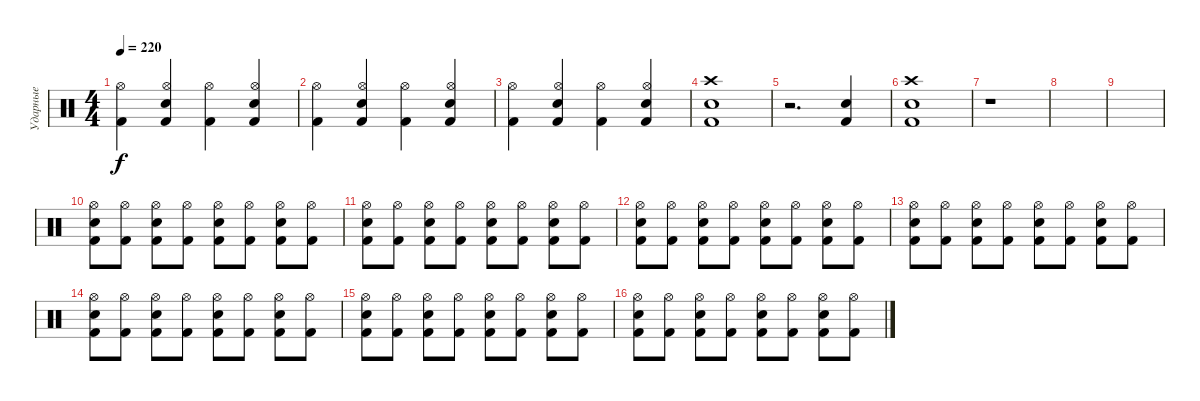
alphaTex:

\track ("Ударные" "Ударные") {instrument percussion}
\staff
\articulation defaults
\ts (4 4)
\tempo 220
\clef neutral
\ks c
("Kick (hit) 2" "Hi-Hat (open)").4{dy f} ("Kick (hit) 2" "Snare (hit) 2" "Hi-Hat (open)").4 ("Kick (hit) 2" "Hi-Hat (open)").4 ("Kick (hit) 2" "Snare (hit) 2" "Hi-Hat (open)").4 |
("Kick (hit) 2" "Hi-Hat (open)").4 ("Kick (hit) 2" "Snare (hit) 2" "Hi-Hat (open)").4 ("Kick (hit) 2" "Hi-Hat (open)").4 ("Kick (hit) 2" "Snare (hit) 2" "Hi-Hat (open)").4 |
("Kick (hit) 2" "Hi-Hat (open)").4 ("Kick (hit) 2" "Snare (hit) 2" "Hi-Hat (open)").4 ("Kick (hit) 2" "Hi-Hat (open)").4 ("Kick (hit) 2" "Snare (hit) 2" "Hi-Hat (open)").4 |
("Kick (hit) 2" "Snare (hit) 2" "Crash high (hit)").1 |
r.2{d} ("Kick (hit) 2" "Snare (hit) 2").4 |
("Kick (hit) 2" "Snare (hit) 2" "Crash high (hit)").1 |
r.1 |
|
|
("Kick (hit) 2" "Snare (hit) 2" "Hi-Hat (open)").8 ("Kick (hit) 2" "Hi-Hat (open)").8 ("Kick (hit) 2" "Snare (hit) 2" "Hi-Hat (open)").8 ("Kick (hit) 2" "Hi-Hat (open)").8 ("Kick (hit) 2" "Snare (hit) 2" "Hi-Hat (open)").8 ("Kick (hit) 2" "Hi-Hat (open)").8 ("Kick (hit) 2" "Snare (hit) 2" "Hi-Hat (open)").8 ("Kick (hit) 2" "Hi-Hat (open)").8 |
("Kick (hit) 2" "Snare (hit) 2" "Hi-Hat (open)").8 ("Kick (hit) 2" "Hi-Hat (open)").8 ("Kick (hit) 2" "Snare (hit) 2" "Hi-Hat (open)").8 ("Kick (hit) 2" "Hi-Hat (open)").8 ("Kick (hit) 2" "Snare (hit) 2" "Hi-Hat (open)").8 ("Kick (hit) 2" "Hi-Hat (open)").8 ("Kick (hit) 2" "Snare (hit) 2" "Hi-Hat (open)").8 ("Kick (hit) 2" "Hi-Hat (open)").8 |
("Kick (hit) 2" "Snare (hit) 2" "Hi-Hat (open)").8 ("Kick (hit) 2" "Hi-Hat (open)").8 ("Kick (hit) 2" "Snare (hit) 2" "Hi-Hat (open)").8 ("Kick (hit) 2" "Hi-Hat (open)").8 ("Kick (hit) 2" "Snare (hit) 2" "Hi-Hat (open)").8 ("Kick (hit) 2" "Hi-Hat (open)").8 ("Kick (hit) 2" "Snare (hit) 2" "Hi-Hat (open)").8 ("Kick (hit) 2" "Hi-Hat (open)").8 |
("Kick (hit) 2" "Snare (hit) 2" "Hi-Hat (open)").8 ("Kick (hit) 2" "Hi-Hat (open)").8 ("Kick (hit) 2" "Snare (hit) 2" "Hi-Hat (open)").8 ("Kick (hit) 2" "Hi-Hat (open)").8 ("Kick (hit) 2" "Snare (hit) 2" "Hi-Hat (open)").8 ("Kick (hit) 2" "Hi-Hat (open)").8 ("Kick (hit) 2" "Snare (hit) 2" "Hi-Hat (open)").8 ("Kick (hit) 2" "Hi-Hat (open)").8 |
("Kick (hit) 2" "Snare (hit) 2" "Hi-Hat (open)").8 ("Kick (hit) 2" "Hi-Hat (open)").8 ("Kick (hit) 2" "Snare (hit) 2" "Hi-Hat (open)").8 ("Kick (hit) 2" "Hi-Hat (open)").8 ("Kick (hit) 2" "Snare (hit) 2" "Hi-Hat (open)").8 ("Kick (hit) 2" "Hi-Hat (open)").8 ("Kick (hit) 2" "Snare (hit) 2" "Hi-Hat (open)").8 ("Kick (hit) 2" "Hi-Hat (open)").8 |
("Kick (hit) 2" "Snare (hit) 2" "Hi-Hat (open)").8 ("Kick (hit) 2" "Hi-Hat (open)").8 ("Kick (hit) 2" "Snare (hit) 2" "Hi-Hat (open)").8 ("Kick (hit) 2" "Hi-Hat (open)").8 ("Kick (hit) 2" "Snare (hit) 2" "Hi-Hat (open)").8 ("Kick (hit) 2" "Hi-Hat (open)").8 ("Kick (hit) 2" "Snare (hit) 2" "Hi-Hat (open)").8 ("Kick (hit) 2" "Hi-Hat (open)").8 |
("Kick (hit) 2" "Snare (hit) 2" "Hi-Hat (open)").8 ("Kick (hit) 2" "Hi-Hat (open)").8 ("Kick (hit) 2" "Snare (hit) 2" "Hi-Hat (open)").8 ("Kick (hit) 2" "Hi-Hat (open)").8 ("Kick (hit) 2" "Snare (hit) 2" "Hi-Hat (open)").8 ("Kick (hit) 2" "Hi-Hat (open)").8 ("Kick (hit) 2" "Snare (hit) 2" "Hi-Hat (open)").8 ("Kick (hit) 2" "Hi-Hat (open)").8
